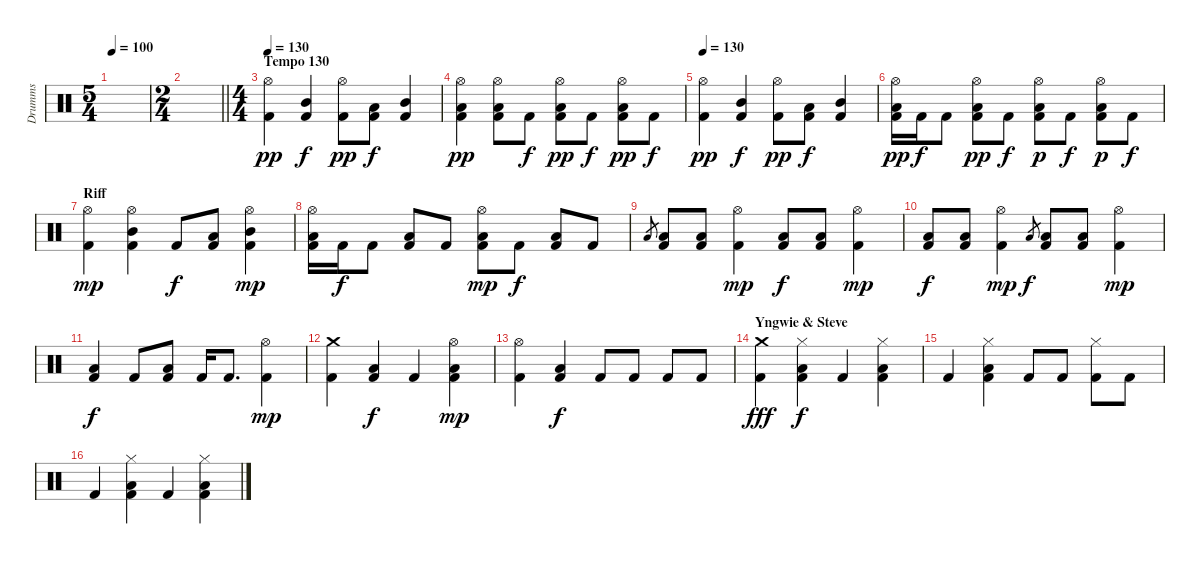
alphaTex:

\track ("Drumms" "Drumms") {instrument percussion}
\staff {score}
\articulation defaults
\ts (5 4)
\tempo 100
\clef neutral
\ks c
|
\ts (2 4)
\barLineRight lightlight
|
\ts (4 4)
\section ("" "Tempo 130")
\tempo 130
("Hi-Hat (open)" "Kick (hit) 2").4{dy pp} ("Kick (hit) 2" "Mid Tom (hit)").4{dy f} ("Hi-Hat (open)" "Kick (hit) 2").8{dy pp} ("Kick (hit) 2" "Low Tom (hit)").8{dy f} ("Kick (hit) 2" "Mid Tom (hit)").4 |
("Hi-Hat (open)" "Kick (hit) 2" "Low Tom (hit)").4{dy pp} ("Hi-Hat (open)" "Kick (hit) 2" "Low Tom (hit)").8 "Kick (hit) 2".8{dy f} ("Hi-Hat (open)" "Kick (hit) 2" "Low Tom (hit)").8{dy pp} "Kick (hit) 2".8{dy f} ("Hi-Hat (open)" "Kick (hit) 2" "Low Tom (hit)").8{dy pp} "Kick (hit) 2".8{dy f} |
\tempo 130
("Hi-Hat (open)" "Kick (hit) 2").4{dy pp} ("Kick (hit) 2" "Mid Tom (hit)").4{dy f} ("Hi-Hat (open)" "Kick (hit) 2").8{dy pp} ("Kick (hit) 2" "Low Tom (hit)").8{dy f} ("Kick (hit) 2" "Mid Tom (hit)").4 |
("Hi-Hat (open)" "Kick (hit) 2" "Low Tom (hit)").16{dy pp} "Kick (hit) 2".16{dy f} "Kick (hit) 2".8 ("Hi-Hat (open)" "Kick (hit) 2" "Low Tom (hit)").8{dy pp} "Kick (hit) 2".8{dy f} ("Hi-Hat (open)" "Kick (hit) 2" "Low Tom (hit)").8{dy p} "Kick (hit) 2".8{dy f} ("Hi-Hat (open)" "Kick (hit) 2" "Low Tom (hit)").8{dy p} "Kick (hit) 2".8{dy f} |
\section ("" "Riff")
("Hi-Hat (open)" "Kick (hit) 2").4{dy mp} ("Hi-Hat (open)" "Kick (hit) 2" "Mid Tom (hit)").4 "Kick (hit) 2".8{dy f} ("Kick (hit) 2" "Low Tom (hit)").8 ("Hi-Hat (open)" "Kick (hit) 2" "Mid Tom (hit)").4{dy mp} |
("Hi-Hat (open)" "Kick (hit) 2" "Low Tom (hit)").16 "Kick (hit) 2".16{dy f} "Kick (hit) 2".8 ("Kick (hit) 2" "Low Tom (hit)").8 "Kick (hit) 2".8 ("Hi-Hat (open)" "Kick (hit) 2" "Low Tom (hit)").8{dy mp} "Kick (hit) 2".8{dy f} ("Kick (hit) 2" "Low Tom (hit)").8 "Kick (hit) 2".8 |
"Low Tom (hit)".8{gr} ("Kick (hit) 2" "Low Tom (hit)").8 ("Kick (hit) 2" "Low Tom (hit)").8 ("Hi-Hat (open)" "Kick (hit) 2").4{dy mp} ("Kick (hit) 2" "Low Tom (hit)").8{dy f} ("Kick (hit) 2" "Low Tom (hit)").8 ("Hi-Hat (open)" "Kick (hit) 2").4{dy mp} |
("Kick (hit) 2" "Low Tom (hit)").8{dy f} ("Kick (hit) 2" "Low Tom (hit)").8 ("Hi-Hat (open)" "Kick (hit) 2").4{dy mp} "Low Tom (hit)".8{gr dy f} ("Kick (hit) 2" "Low Tom (hit)").8 ("Kick (hit) 2" "Low Tom (hit)").8 ("Hi-Hat (open)" "Kick (hit) 2").4{dy mp} |
("Kick (hit) 2" "Low Tom (hit)").4{dy f} "Kick (hit) 2".8 ("Kick (hit) 2" "Low Tom (hit)").8 "Kick (hit) 2".16 "Kick (hit) 2".8{d} ("Hi-Hat (open)" "Kick (hit) 2").4{dy mp} |
("Crash medium (hit)" "Kick (hit) 2").4 ("Kick (hit) 2" "Low Tom (hit)").4{dy f} "Kick (hit) 2".4 ("Hi-Hat (open)" "Kick (hit) 2" "Low Tom (hit)").4{dy mp} |
("Hi-Hat (open)" "Kick (hit) 2").4 ("Kick (hit) 2" "Low Tom (hit)").4{dy f} "Kick (hit) 2".8 "Kick (hit) 2".8 "Kick (hit) 2".8 "Kick (hit) 2".8 |
\section ("" "Yngwie & Steve")
("Crash medium (hit)" "Kick (hit) 2").4{dy fff} ("Hi-Hat (closed)" "Kick (hit) 2" "Low Tom (hit)").4{dy f} "Kick (hit) 2".4 ("Hi-Hat (closed)" "Kick (hit) 2" "Low Tom (hit)").4 |
"Kick (hit) 2".4 ("Hi-Hat (closed)" "Kick (hit) 2" "Low Tom (hit)").4 "Kick (hit) 2".8 "Kick (hit) 2".8 ("Hi-Hat (closed)" "Kick (hit) 2").8 "Kick (hit) 2".8 |
"Kick (hit) 2".4 ("Hi-Hat (closed)" "Kick (hit) 2" "Low Tom (hit)").4 "Kick (hit) 2".4 ("Hi-Hat (closed)" "Kick (hit) 2" "Low Tom (hit)").4
